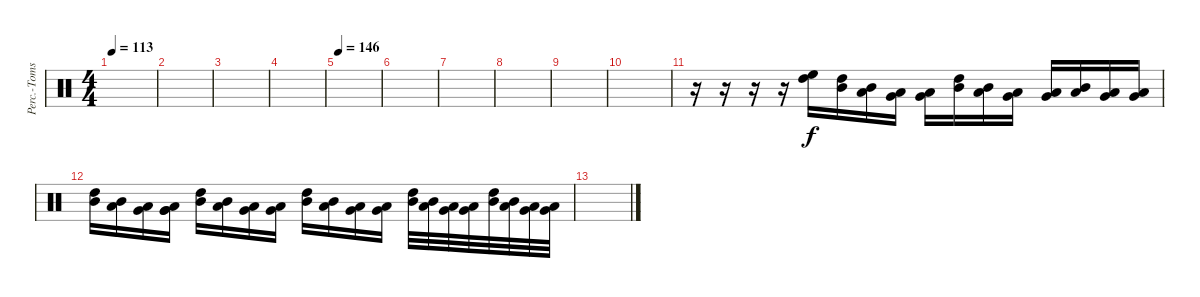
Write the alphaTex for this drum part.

\track ("Perc.-Toms 1" "Perc.-Toms") {instrument percussion}
\staff {score}
\articulation defaults
\ts (4 4)
\tempo 113
\clef neutral
\ks c
|
|
|
|
\tempo 146
|
|
|
|
|
|
r.16 r.16 r.16 r.16 ("High Floor Tom (hit)" "High Tom (hit)").16 ("High Tom (hit)" "Mid Tom (hit)").16 ("Mid Tom (hit)" "Low Tom (hit)").16 ("Low Tom (hit)" "Very Low Tom (hit)").16 ("Very Low Tom (hit)" "Low Floor Tom (hit)").16 ("High Tom (hit)" "Mid Tom (hit)").16 ("Mid Tom (hit)" "Low Tom (hit)").16 ("Low Tom (hit)" "Very Low Tom (hit)").16 ("Very Low Tom (hit)" "Low Floor Tom (hit)").16 ("Mid Tom (hit)" "Low Tom (hit)").16 ("Low Tom (hit)" "Very Low Tom (hit)").16 ("Very Low Tom (hit)" "Low Floor Tom (hit)").16 |
("High Tom (hit)" "Mid Tom (hit)").16 ("Mid Tom (hit)" "Low Tom (hit)").16 ("Low Tom (hit)" "Very Low Tom (hit)").16 ("Very Low Tom (hit)" "Very Low Tom (hit)" "Low Floor Tom (hit)").16 ("High Tom (hit)" "Mid Tom (hit)").16 ("Mid Tom (hit)" "Low Tom (hit)").16 ("Low Tom (hit)" "Very Low Tom (hit)").16 ("Very Low Tom (hit)" "Low Floor Tom (hit)").16 ("High Tom (hit)" "Mid Tom (hit)").16 ("Mid Tom (hit)" "Low Tom (hit)").16 ("Low Tom (hit)" "Very Low Tom (hit)").16 ("Very Low Tom (hit)" "Low Floor Tom (hit)").16 ("High Tom (hit)" "Mid Tom (hit)").32 ("Mid Tom (hit)" "Low Tom (hit)").32 ("Low Tom (hit)" "Very Low Tom (hit)").32 ("Very Low Tom (hit)" "Low Floor Tom (hit)").32 ("High Tom (hit)" "Mid Tom (hit)").32 ("Mid Tom (hit)" "Low Tom (hit)").32 ("Low Tom (hit)" "Very Low Tom (hit)").32 ("Very Low Tom (hit)" "Low Floor Tom (hit)").32 |
\section ("" "")
